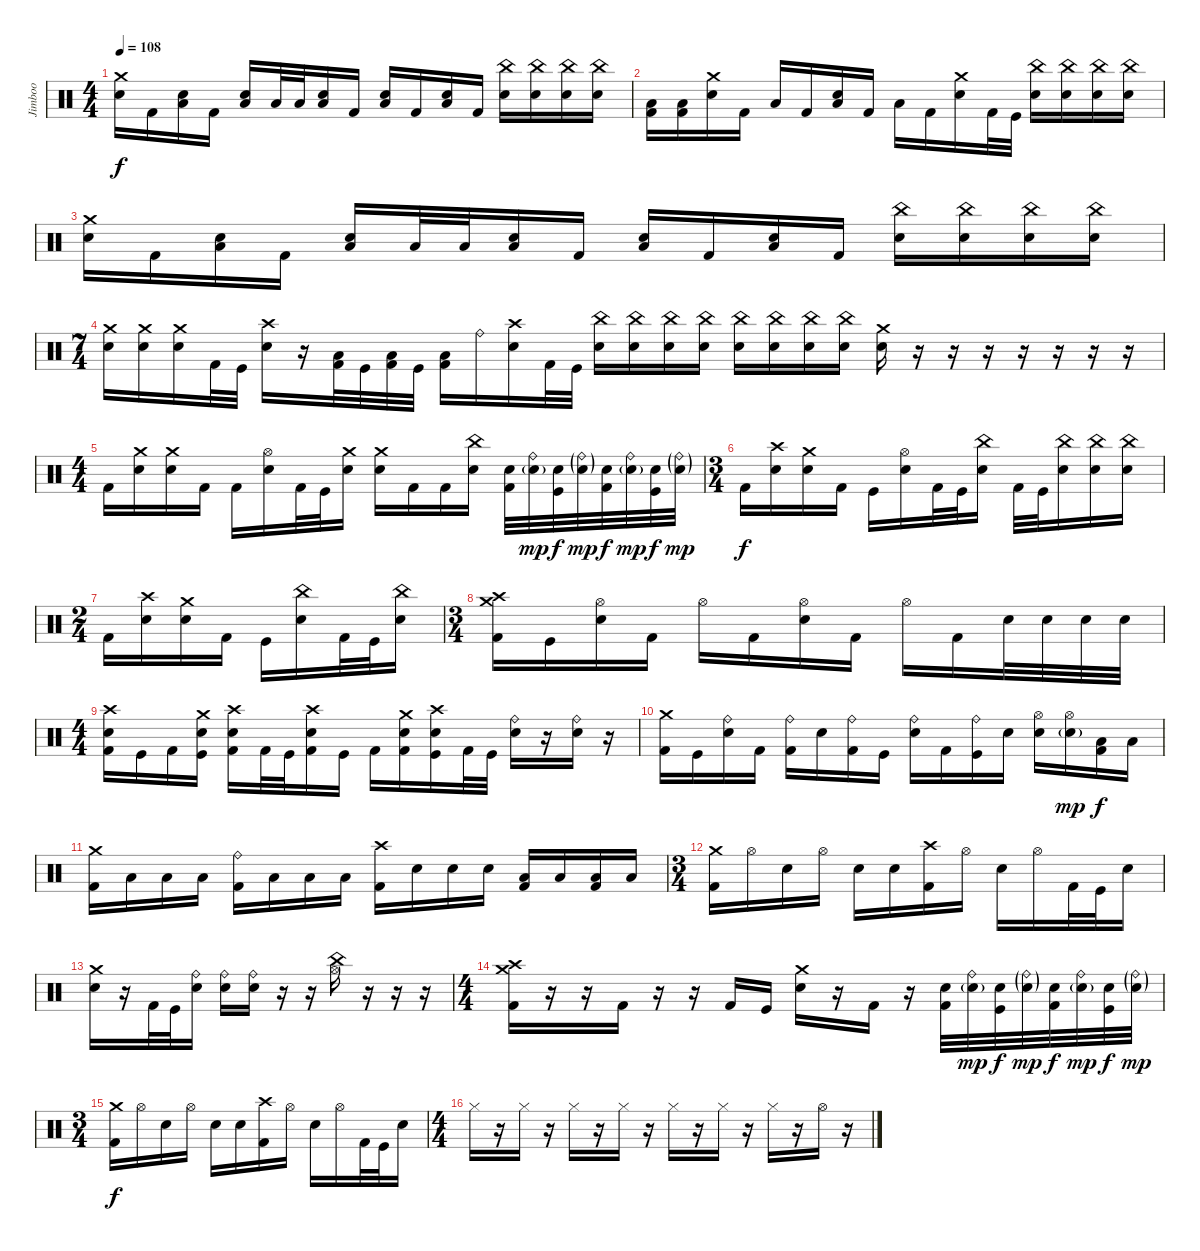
\track ("Jimboo" "Jimboo") {instrument percussion}
\staff
\articulation defaults
\ts (4 4)
\tempo 108
\clef neutral
\ks c
("Electric Snare (hit)" "Crash medium (hit)").16{dy f} "Kick (hit) 2".16 ("Electric Snare (hit)" "Low Floor Tom (hit)").16 "Kick (hit) 2".16 ("Electric Snare (hit)" "Low Floor Tom (hit)").16 "Low Tom (hit)".32 "Low Tom (hit)".32 ("Electric Snare (hit)" "Low Floor Tom (hit)").16 "Kick (hit) 2".16 ("Electric Snare (hit)" "Low Floor Tom (hit)").16 "Kick (hit) 2".16 ("Electric Snare (hit)" "Low Floor Tom (hit)").16 "Kick (hit) 2".16 ("Electric Snare (hit)" "China (hit)").16 ("Electric Snare (hit)" "China (hit)").16 ("Electric Snare (hit)" "China (hit)").16 ("Electric Snare (hit)" "China (hit)").16 |
("Kick (hit) 2" "Low Tom (hit)").16 ("Kick (hit) 2" "Low Floor Tom (hit)").16 ("Electric Snare (hit)" "Crash medium (hit)").16 "Kick (hit) 2".16 "Low Floor Tom (hit)".16 "Kick (hit) 2".16 ("Electric Snare (hit)" "Low Floor Tom (hit)").16 "Kick (hit) 2".16 "Low Floor Tom (hit)".16 "Kick (hit) 2".16 ("Electric Snare (hit)" "Crash medium (hit)").16 "Kick (hit) 2".32 "Kick (hit)".32 ("Electric Snare (hit)" "China (hit)").16 ("Electric Snare (hit)" "China (hit)").16 ("Electric Snare (hit)" "China (hit)").16 ("Electric Snare (hit)" "China (hit)").16 |
("Electric Snare (hit)" "Crash medium (hit)").16 "Kick (hit) 2".16 ("Electric Snare (hit)" "Low Floor Tom (hit)").16 "Kick (hit) 2".16 ("Electric Snare (hit)" "Low Floor Tom (hit)").16 "Low Tom (hit)".32 "Low Tom (hit)".32 ("Electric Snare (hit)" "Low Floor Tom (hit)").16 "Kick (hit) 2".16 ("Electric Snare (hit)" "Low Floor Tom (hit)").16 "Kick (hit) 2".16 ("Electric Snare (hit)" "Low Floor Tom (hit)").16 "Kick (hit) 2".16 ("Electric Snare (hit)" "China (hit)").16 ("Electric Snare (hit)" "China (hit)").16 ("Electric Snare (hit)" "China (hit)").16 ("Electric Snare (hit)" "China (hit)").16 |
\ts (7 4)
("Electric Snare (hit)" "Crash medium (hit)").16 ("Electric Snare (hit)" "Crash medium (hit)").16 ("Electric Snare (hit)" "Crash medium (hit)").16 "Kick (hit) 2".32 "Kick (hit)".32 ("Electric Snare (hit)" "Crash high (hit)").16 r.16 ("Kick (hit) 2" "Low Tom (hit)").32 "Kick (hit)".32 ("Kick (hit) 2" "Low Tom (hit)").32 "Kick (hit)".32 ("Kick (hit) 2" "Low Floor Tom (hit)").16 "Ride (bell)".16 ("Electric Snare (hit)" "Crash high (hit)").16 "Kick (hit) 2".32 "Kick (hit)".32 ("Electric Snare (hit)" "China (hit)").16 ("Electric Snare (hit)" "China (hit)").16 ("Electric Snare (hit)" "China (hit)").16 ("Electric Snare (hit)" "China (hit)").16 ("Electric Snare (hit)" "China (hit)").16 ("Electric Snare (hit)" "China (hit)").16 ("Electric Snare (hit)" "China (hit)").16 ("Electric Snare (hit)" "China (hit)").16 ("Electric Snare (hit)" "Crash medium (hit)").16 r.16 r.16 r.16 r.16 r.16 r.16 r.16 |
\ts (4 4)
"Kick (hit) 2".16 ("Electric Snare (hit)" "Crash medium (hit)").16 ("Electric Snare (hit)" "Crash medium (hit)").16 "Kick (hit) 2".16 "Kick (hit) 2".16 ("Electric Snare (hit)" "Hi-Hat (open)").16 "Kick (hit) 2".32 "Kick (hit)".32 ("Electric Snare (hit)" "Crash medium (hit)").16 ("Electric Snare (hit)" "Crash medium (hit)").16 "Kick (hit) 2".16 "Kick (hit) 2".16 ("Electric Snare (hit)" "China (hit)").16 ("Electric Snare (hit)" "Kick (hit) 2").32 ("Electric Snare (hit)"{g} "Ride (bell)").32{dy mp} ("Electric Snare (hit)" "Kick (hit)").32{dy f} ("Electric Snare (hit)"{g} "Ride (bell)"{g}).32{dy mp} ("Electric Snare (hit)" "Kick (hit) 2").32{dy f} ("Electric Snare (hit)"{g} "Ride (bell)").32{dy mp} ("Electric Snare (hit)" "Kick (hit)").32{dy f} ("Electric Snare (hit)"{g} "Ride (bell)"{g}).32{dy mp} |
\ts (3 4)
"Kick (hit) 2".16{dy f} ("Electric Snare (hit)" "Crash high (hit)").16 ("Electric Snare (hit)" "Crash medium (hit)").16 "Kick (hit) 2".16 "Kick (hit)".16 ("Electric Snare (hit)" "Hi-Hat (open)").16 "Kick (hit) 2".32 "Kick (hit)".32 ("Electric Snare (hit)" "China (hit)").16 "Kick (hit) 2".32 "Kick (hit)".32 ("Electric Snare (hit)" "China (hit)").16 ("Electric Snare (hit)" "China (hit)").16 ("Electric Snare (hit)" "China (hit)").16 |
\ts (2 4)
"Kick (hit) 2".16 ("Electric Snare (hit)" "Crash high (hit)").16 ("Electric Snare (hit)" "Crash medium (hit)").16 "Kick (hit) 2".16 "Kick (hit)".16 ("China (hit)" "Electric Snare (hit)").16 "Kick (hit) 2".32 "Kick (hit)".32 ("Electric Snare (hit)" "China (hit)").16 |
\ts (3 4)
("Kick (hit) 2" "Crash medium (hit)" "Crash high (hit)").16 "Kick (hit)".16 ("Electric Snare (hit)" "Hi-Hat (open)").16 "Kick (hit) 2".16 "Hi-Hat (open)".16 "Kick (hit) 2".16 ("Electric Snare (hit)" "Hi-Hat (open)").16 "Kick (hit) 2".16 "Hi-Hat (open)".16 "Kick (hit) 2".16 "Electric Snare (hit)".32 "Electric Snare (hit)".32 "Electric Snare (hit)".32 "Electric Snare (hit)".32 |
\ts (4 4)
("Kick (hit) 2" "Crash high (hit)" "Electric Snare (hit)").16 "Kick (hit)".16 "Kick (hit) 2".16 ("Kick (hit)" "Crash medium (hit)" "Electric Snare (hit)").16 ("Kick (hit) 2" "Crash high (hit)" "Electric Snare (hit)").16 "Kick (hit) 2".32 "Kick (hit)".32 ("Kick (hit) 2" "Crash high (hit)" "Electric Snare (hit)").16 "Kick (hit)".16 "Kick (hit) 2".16 ("Kick (hit) 2" "Crash medium (hit)" "Electric Snare (hit)").16 ("Kick (hit)" "Crash high (hit)" "Electric Snare (hit)").16 "Kick (hit) 2".32 "Kick (hit)".32 ("Electric Snare (hit)" "Ride (bell)").16 r.16 ("Electric Snare (hit)" "Ride (bell)").16 r.16 |
("Kick (hit) 2" "Crash medium (hit)").16 "Kick (hit)".16 ("Electric Snare (hit)" "Ride (bell)").16 "Kick (hit) 2".16 ("Kick (hit) 2" "Ride (bell)").16 "Electric Snare (hit)".16 ("Kick (hit) 2" "Ride (bell)").16 "Kick (hit)".16 ("Electric Snare (hit)" "Ride (bell)").16 "Kick (hit) 2".16 ("Kick (hit)" "Ride (bell)").16 "Electric Snare (hit)".16 ("Electric Snare (hit)" "Hi-Hat (open)").16 ("Electric Snare (hit)"{g} "Hi-Hat (open)").16{dy mp} ("Low Tom (hit)" "Kick (hit) 2").16{dy f} "Low Floor Tom (hit)".16 |
("Kick (hit) 2" "Crash medium (hit)").16 "Low Tom (hit)".16 "Low Tom (hit)".16 "Low Floor Tom (hit)".16 ("Kick (hit) 2" "Ride (bell)").16 "Low Tom (hit)".16 "Low Floor Tom (hit)".16 "Low Floor Tom (hit)".16 ("Kick (hit) 2" "Crash high (hit)").16 "Electric Snare (hit)".16 "Electric Snare (hit)".16 "Electric Snare (hit)".16 ("Kick (hit) 2" "Low Tom (hit)").16 "Low Tom (hit)".16 ("Kick (hit) 2" "Low Floor Tom (hit)").16 "Low Floor Tom (hit)".16 |
\ts (3 4)
("Kick (hit) 2" "Crash medium (hit)").16 "Hi-Hat (open)".16 "Electric Snare (hit)".16 "Hi-Hat (open)".16 "Electric Snare (hit)".16 "Electric Snare (hit)".16 ("Kick (hit) 2" "Crash high (hit)").16 "Hi-Hat (open)".16 "Electric Snare (hit)".16 "Hi-Hat (open)".16 "Kick (hit) 2".32 "Kick (hit)".32 "Electric Snare (hit)".16 |
("Electric Snare (hit)" "Crash medium (hit)").16 r.16 "Kick (hit) 2".32 "Kick (hit)".32 ("Electric Snare (hit)" "Ride (bell)").16 ("Electric Snare (hit)" "Ride (bell)").16 ("Electric Snare (hit)" "Ride (bell)").16 r.16 r.16 ("Hi-Hat (open)" "China (hit)").16 r.16 r.16 r.16 |
\ts (4 4)
("Kick (hit) 2" "Crash medium (hit)" "Crash high (hit)").16 r.16 r.16 "Kick (hit) 2".16 r.16 r.16 "Kick (hit) 2".16 "Kick (hit)".16 ("Electric Snare (hit)" "Crash medium (hit)").16 r.16 "Kick (hit) 2".16 r.16 ("Electric Snare (hit)" "Kick (hit) 2").32 ("Electric Snare (hit)"{g} "Ride (bell)").32{dy mp} ("Electric Snare (hit)" "Kick (hit)").32{dy f} ("Electric Snare (hit)"{g} "Ride (bell)"{g}).32{dy mp} ("Electric Snare (hit)" "Kick (hit) 2").32{dy f} ("Electric Snare (hit)"{g} "Ride (bell)").32{dy mp} ("Electric Snare (hit)" "Kick (hit)").32{dy f} ("Electric Snare (hit)"{g} "Ride (bell)"{g}).32{dy mp} |
\ts (3 4)
("Kick (hit) 2" "Crash medium (hit)").16{dy f} "Hi-Hat (open)".16 "Electric Snare (hit)".16 "Hi-Hat (open)".16 "Electric Snare (hit)".16 "Electric Snare (hit)".16 ("Kick (hit) 2" "Crash high (hit)").16 "Hi-Hat (open)".16 "Electric Snare (hit)".16 "Hi-Hat (open)".16 "Kick (hit) 2".32 "Kick (hit)".32 "Electric Snare (hit)".16 |
\ts (4 4)
"Hi-Hat (closed)".16 r.16 "Hi-Hat (closed)".16 r.16 "Hi-Hat (closed)".16 r.16 "Hi-Hat (closed)".16 r.16 "Hi-Hat (closed)".16 r.16 "Hi-Hat (closed)".16 r.16 "Hi-Hat (closed)".16 r.16 "Hi-Hat (open)".16 r.16
